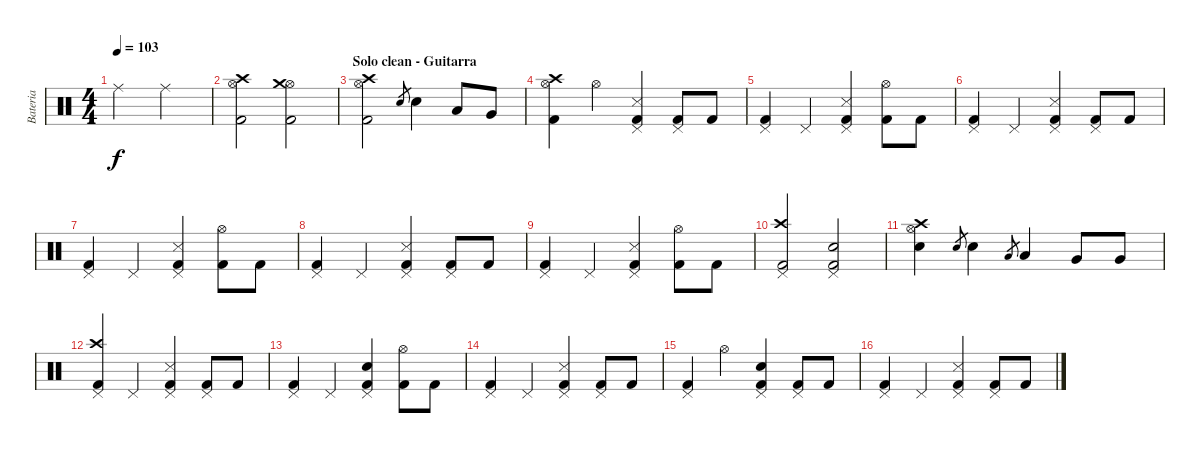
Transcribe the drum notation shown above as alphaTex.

\track ("Bateria" "Bateria") {instrument percussion}
\staff {score}
\articulation defaults
\ts (4 4)
\tempo 103
\clef neutral
\ks c "Ride (middle)".2{dy f} "Ride (middle)".2
|
("Hi-Hat (open)" "Kick (hit) 2" "Crash high (hit)").2 ("Hi-Hat (open)" "Kick (hit) 2" "Crash medium (hit)").2 |
\section ("" "Solo clean - Guitarra")
("Hi-Hat (open)" "Kick (hit) 2" "Crash high (hit)").2 "Snare (hit) 2".8{gr} "Snare (hit) 2".4 "Low Tom (hit)".8 "Very Low Tom (hit)".8 |
("Hi-Hat (open)" "Kick (hit) 2" "Crash high (hit)").4 "Hi-Hat (open)".4 ("Pedal Hi-Hat (hit)" "Snare (side stick) 3" "Kick (hit) 2").4 ("Pedal Hi-Hat (hit)" "Kick (hit) 2").8 "Kick (hit) 2".8 |
("Pedal Hi-Hat (hit)" "Kick (hit) 2").4 "Pedal Hi-Hat (hit)".4 ("Pedal Hi-Hat (hit)" "Snare (side stick) 3" "Kick (hit) 2").4 ("Hi-Hat (open)" "Kick (hit) 2").8 "Kick (hit) 2".8 |
("Pedal Hi-Hat (hit)" "Kick (hit) 2").4 "Pedal Hi-Hat (hit)".4 ("Pedal Hi-Hat (hit)" "Snare (side stick) 3" "Kick (hit) 2").4 ("Pedal Hi-Hat (hit)" "Kick (hit) 2").8 "Kick (hit) 2".8 |
("Pedal Hi-Hat (hit)" "Kick (hit) 2").4 "Pedal Hi-Hat (hit)".4 ("Pedal Hi-Hat (hit)" "Snare (side stick) 3" "Kick (hit) 2").4 ("Hi-Hat (open)" "Kick (hit) 2").8 "Kick (hit) 2".8 |
("Pedal Hi-Hat (hit)" "Kick (hit) 2").4 "Pedal Hi-Hat (hit)".4 ("Pedal Hi-Hat (hit)" "Snare (side stick) 3" "Kick (hit) 2").4 ("Pedal Hi-Hat (hit)" "Kick (hit) 2").8 "Kick (hit) 2".8 |
("Pedal Hi-Hat (hit)" "Kick (hit) 2").4 "Pedal Hi-Hat (hit)".4 ("Pedal Hi-Hat (hit)" "Snare (side stick) 3" "Kick (hit) 2").4 ("Hi-Hat (open)" "Kick (hit) 2").8 "Kick (hit) 2".8 |
("Pedal Hi-Hat (hit)" "Kick (hit) 2" "Crash high (hit)").2 ("Pedal Hi-Hat (hit)" "Snare (hit) 2" "Kick (hit) 2").2 |
("Hi-Hat (open)" "Snare (hit) 2" "Crash high (hit)").4 "Snare (hit) 2".8{gr} "Snare (hit) 2".4 "Low Tom (hit)".8{gr} "Low Tom (hit)".4 "Very Low Tom (hit)".8 "Very Low Tom (hit)".8 |
("Pedal Hi-Hat (hit)" "Kick (hit) 2" "Crash high (hit)").4 "Pedal Hi-Hat (hit)".4 ("Pedal Hi-Hat (hit)" "Snare (side stick) 3" "Kick (hit) 2").4 ("Pedal Hi-Hat (hit)" "Kick (hit) 2").8 "Kick (hit) 2".8 |
("Pedal Hi-Hat (hit)" "Kick (hit) 2").4 "Pedal Hi-Hat (hit)".4 ("Pedal Hi-Hat (hit)" "Snare (hit) 2" "Kick (hit) 2").4 ("Hi-Hat (open)" "Kick (hit) 2").8 "Kick (hit) 2".8 |
("Pedal Hi-Hat (hit)" "Kick (hit) 2").4 "Pedal Hi-Hat (hit)".4 ("Pedal Hi-Hat (hit)" "Snare (side stick) 3" "Kick (hit) 2").4 ("Pedal Hi-Hat (hit)" "Kick (hit) 2").8 "Kick (hit) 2".8 |
("Pedal Hi-Hat (hit)" "Kick (hit) 2").4 "Hi-Hat (open)".4 ("Pedal Hi-Hat (hit)" "Snare (hit) 2" "Kick (hit) 2").4 ("Pedal Hi-Hat (hit)" "Kick (hit) 2").8 "Kick (hit) 2".8 |
("Pedal Hi-Hat (hit)" "Kick (hit) 2").4 "Pedal Hi-Hat (hit)".4 ("Pedal Hi-Hat (hit)" "Snare (side stick) 3" "Kick (hit) 2").4 ("Pedal Hi-Hat (hit)" "Kick (hit) 2").8 "Kick (hit) 2".8
